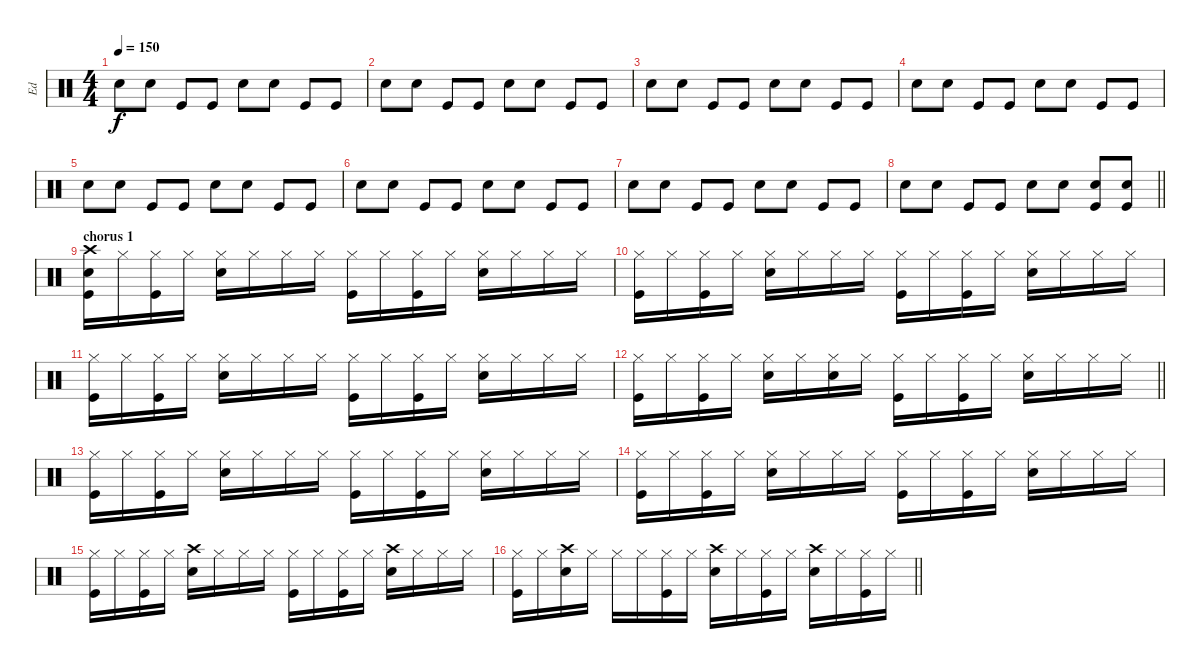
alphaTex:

\track ("Ed" "Ed") {instrument percussion}
\staff {score}
\articulation defaults
\ts (4 4)
\tempo 150
\clef neutral
\ks c "Electric Snare (hit)".8{dy f} "Electric Snare (hit)".8 "Kick (hit)".8 "Kick (hit)".8 "Electric Snare (hit)".8 "Electric Snare (hit)".8 "Kick (hit)".8 "Kick (hit)".8
|
"Electric Snare (hit)".8 "Electric Snare (hit)".8 "Kick (hit)".8 "Kick (hit)".8 "Electric Snare (hit)".8 "Electric Snare (hit)".8 "Kick (hit)".8 "Kick (hit)".8 |
"Electric Snare (hit)".8 "Electric Snare (hit)".8 "Kick (hit)".8 "Kick (hit)".8 "Electric Snare (hit)".8 "Electric Snare (hit)".8 "Kick (hit)".8 "Kick (hit)".8 |
"Electric Snare (hit)".8 "Electric Snare (hit)".8 "Kick (hit)".8 "Kick (hit)".8 "Electric Snare (hit)".8 "Electric Snare (hit)".8 "Kick (hit)".8 "Kick (hit)".8 |
"Electric Snare (hit)".8 "Electric Snare (hit)".8 "Kick (hit)".8 "Kick (hit)".8 "Electric Snare (hit)".8 "Electric Snare (hit)".8 "Kick (hit)".8 "Kick (hit)".8 |
"Electric Snare (hit)".8 "Electric Snare (hit)".8 "Kick (hit)".8 "Kick (hit)".8 "Electric Snare (hit)".8 "Electric Snare (hit)".8 "Kick (hit)".8 "Kick (hit)".8 |
"Electric Snare (hit)".8 "Electric Snare (hit)".8 "Kick (hit)".8 "Kick (hit)".8 "Electric Snare (hit)".8 "Electric Snare (hit)".8 "Kick (hit)".8 "Kick (hit)".8 |
\barLineRight lightlight "Electric Snare (hit)".8 "Electric Snare (hit)".8 "Kick (hit)".8 "Kick (hit)".8 "Electric Snare (hit)".8 "Electric Snare (hit)".8
("Electric Snare (hit)" "Kick (hit)").8 ("Electric Snare (hit)" "Kick (hit)").8 |
\section ("" "chorus 1")
("Crash high (hit)" "Electric Snare (hit)" "Kick (hit)").16 "Hi-Hat (closed)".16 ("Hi-Hat (closed)" "Kick (hit)").16 "Hi-Hat (closed)".16 ("Hi-Hat (closed)" "Electric Snare (hit)").16 "Hi-Hat (closed)".16 "Hi-Hat (closed)".16 "Hi-Hat (closed)".16 ("Hi-Hat (closed)" "Kick (hit)").16 "Hi-Hat (closed)".16 ("Hi-Hat (closed)" "Kick (hit)").16 "Hi-Hat (closed)".16 ("Hi-Hat (closed)" "Electric Snare (hit)").16 "Hi-Hat (closed)".16 "Hi-Hat (closed)".16 "Hi-Hat (closed)".16 |
("Hi-Hat (closed)" "Kick (hit)").16 "Hi-Hat (closed)".16 ("Hi-Hat (closed)" "Kick (hit)").16 "Hi-Hat (closed)".16 ("Hi-Hat (closed)" "Electric Snare (hit)").16 "Hi-Hat (closed)".16 "Hi-Hat (closed)".16 "Hi-Hat (closed)".16 ("Hi-Hat (closed)" "Kick (hit)").16 "Hi-Hat (closed)".16 ("Hi-Hat (closed)" "Kick (hit)").16 "Hi-Hat (closed)".16 ("Hi-Hat (closed)" "Electric Snare (hit)").16 "Hi-Hat (closed)".16 "Hi-Hat (closed)".16 "Hi-Hat (closed)".16 |
("Hi-Hat (closed)" "Kick (hit)").16 "Hi-Hat (closed)".16 ("Hi-Hat (closed)" "Kick (hit)").16 "Hi-Hat (closed)".16 ("Hi-Hat (closed)" "Electric Snare (hit)").16 "Hi-Hat (closed)".16 "Hi-Hat (closed)".16 "Hi-Hat (closed)".16 ("Hi-Hat (closed)" "Kick (hit)").16 "Hi-Hat (closed)".16 ("Hi-Hat (closed)" "Kick (hit)").16 "Hi-Hat (closed)".16 ("Hi-Hat (closed)" "Electric Snare (hit)").16 "Hi-Hat (closed)".16 "Hi-Hat (closed)".16 "Hi-Hat (closed)".16 |
\barLineRight lightlight
("Hi-Hat (closed)" "Kick (hit)").16 "Hi-Hat (closed)".16 ("Hi-Hat (closed)" "Kick (hit)").16 "Hi-Hat (closed)".16 ("Hi-Hat (closed)" "Electric Snare (hit)").16 "Hi-Hat (closed)".16 ("Hi-Hat (closed)" "Electric Snare (hit)").16 "Hi-Hat (closed)".16 ("Hi-Hat (closed)" "Kick (hit)").16 "Hi-Hat (closed)".16 ("Hi-Hat (closed)" "Kick (hit)").16 "Hi-Hat (closed)".16 ("Hi-Hat (closed)" "Electric Snare (hit)").16 "Hi-Hat (closed)".16 "Hi-Hat (closed)".16 "Hi-Hat (closed)".16 |
("Hi-Hat (closed)" "Kick (hit)").16 "Hi-Hat (closed)".16 ("Hi-Hat (closed)" "Kick (hit)").16 "Hi-Hat (closed)".16 ("Hi-Hat (closed)" "Electric Snare (hit)").16 "Hi-Hat (closed)".16 "Hi-Hat (closed)".16 "Hi-Hat (closed)".16 ("Hi-Hat (closed)" "Kick (hit)").16 "Hi-Hat (closed)".16 ("Hi-Hat (closed)" "Kick (hit)").16 "Hi-Hat (closed)".16 ("Hi-Hat (closed)" "Electric Snare (hit)").16 "Hi-Hat (closed)".16 "Hi-Hat (closed)".16 "Hi-Hat (closed)".16 |
("Hi-Hat (closed)" "Kick (hit)").16 "Hi-Hat (closed)".16 ("Hi-Hat (closed)" "Kick (hit)").16 "Hi-Hat (closed)".16 ("Hi-Hat (closed)" "Electric Snare (hit)").16 "Hi-Hat (closed)".16 "Hi-Hat (closed)".16 "Hi-Hat (closed)".16 ("Hi-Hat (closed)" "Kick (hit)").16 "Hi-Hat (closed)".16 ("Hi-Hat (closed)" "Kick (hit)").16 "Hi-Hat (closed)".16 ("Hi-Hat (closed)" "Electric Snare (hit)").16 "Hi-Hat (closed)".16 "Hi-Hat (closed)".16 "Hi-Hat (closed)".16 |
("Hi-Hat (closed)" "Kick (hit)").16 "Hi-Hat (closed)".16 ("Hi-Hat (closed)" "Kick (hit)").16 "Hi-Hat (closed)".16 ("Crash high (hit)" "Electric Snare (hit)").16 "Hi-Hat (closed)".16 "Hi-Hat (closed)".16 "Hi-Hat (closed)".16 ("Hi-Hat (closed)" "Kick (hit)").16 "Hi-Hat (closed)".16 ("Hi-Hat (closed)" "Kick (hit)").16 "Hi-Hat (closed)".16 ("Crash high (hit)" "Electric Snare (hit)").16 "Hi-Hat (closed)".16 "Hi-Hat (closed)".16 "Hi-Hat (closed)".16 |
\barLineRight lightlight
("Hi-Hat (closed)" "Kick (hit)").16 "Hi-Hat (closed)".16 ("Crash high (hit)" "Electric Snare (hit)").16 "Hi-Hat (closed)".16 "Hi-Hat (closed)".16 "Hi-Hat (closed)".16 ("Hi-Hat (closed)" "Kick (hit)").16 "Hi-Hat (closed)".16 ("Crash high (hit)" "Electric Snare (hit)").16 "Hi-Hat (closed)".16 ("Hi-Hat (closed)" "Kick (hit)").16 "Hi-Hat (closed)".16 ("Crash high (hit)" "Electric Snare (hit)").16 "Hi-Hat (closed)".16 ("Hi-Hat (closed)" "Kick (hit)").16 "Hi-Hat (closed)".16
